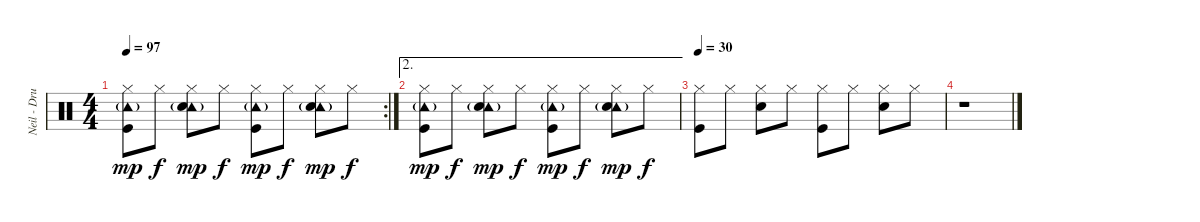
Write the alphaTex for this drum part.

\track ("Neil - Drums" "Neil - Dru") {instrument percussion}
\staff {score}
\articulation defaults
\rc 2
\ts (4 4)
\tempo 97
\clef neutral
\ks c
("Hi-Hat (closed)" "Tambourine (hit)"{g} "Kick (hit)").8{dy mp} "Hi-Hat (closed)".8{dy f} ("Hi-Hat (closed)" "Tambourine (hit)"{g} "Electric Snare (hit)").8{dy mp} "Hi-Hat (closed)".8{dy f} ("Hi-Hat (closed)" "Tambourine (hit)"{g} "Kick (hit)").8{dy mp} "Hi-Hat (closed)".8{dy f} ("Hi-Hat (closed)" "Tambourine (hit)"{g} "Electric Snare (hit)").8{dy mp} "Hi-Hat (closed)".8{dy f} |
\ae 2
("Hi-Hat (closed)" "Tambourine (hit)"{g} "Kick (hit)").8{dy mp} "Hi-Hat (closed)".8{dy f} ("Hi-Hat (closed)" "Tambourine (hit)"{g} "Electric Snare (hit)").8{dy mp} "Hi-Hat (closed)".8{dy f} ("Hi-Hat (closed)" "Tambourine (hit)"{g} "Kick (hit)").8{dy mp} "Hi-Hat (closed)".8{dy f} ("Hi-Hat (closed)" "Tambourine (hit)"{g} "Electric Snare (hit)").8{dy mp} "Hi-Hat (closed)".8{dy f} |
\tempo 30
("Hi-Hat (closed)" "Kick (hit)").8 "Hi-Hat (closed)".8 ("Hi-Hat (closed)" "Electric Snare (hit)").8 "Hi-Hat (closed)".8 ("Hi-Hat (closed)" "Kick (hit)").8 "Hi-Hat (closed)".8 ("Hi-Hat (closed)" "Electric Snare (hit)").8 "Hi-Hat (closed)".8 |
r.1
